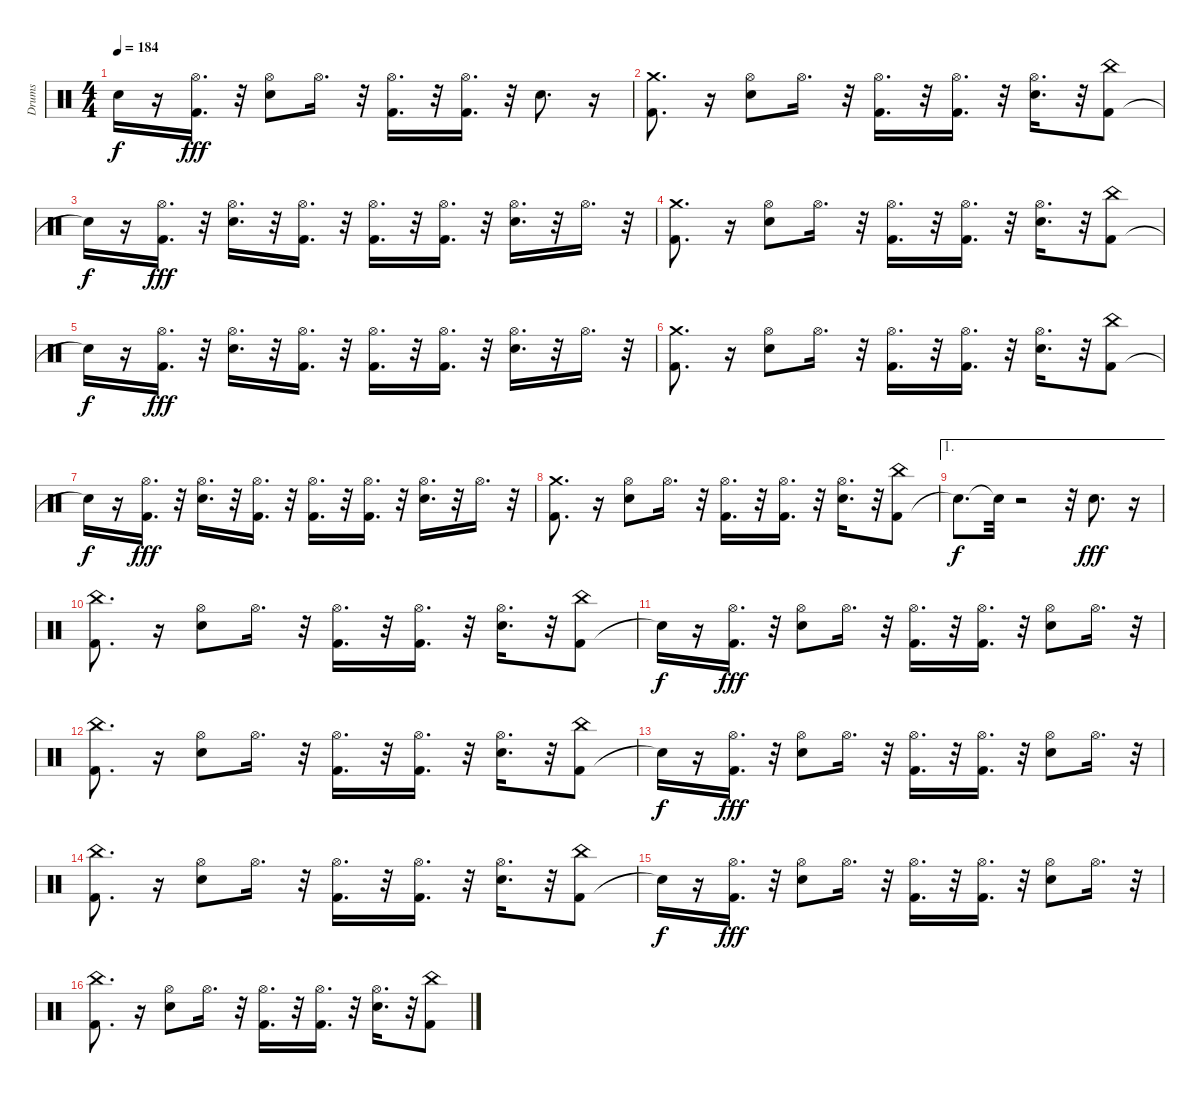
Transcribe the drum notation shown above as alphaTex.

\track ("Drums" "Drums") {instrument percussion}
\staff {score}
\articulation defaults
\ts (4 4)
\tempo 184
\clef neutral
\ks c "Snare (hit)"{t}.16{dy f}
r.16 ("Kick (hit) 2" "Hi-Hat (open)").16{d dy fff} r.32 ("Electric Snare (hit)" "Hi-Hat (open)").8 "Hi-Hat (open)".16{d} r.32 ("Kick (hit) 2" "Hi-Hat (open)").16{d} r.32 ("Kick (hit) 2" "Hi-Hat (open)").16{d} r.32 "Electric Snare (hit)".8{d} r.16 |
("Crash medium (hit)" "Kick (hit) 2").8{d} r.16 ("Electric Snare (hit)" "Hi-Hat (open)").8 "Hi-Hat (open)".16{d} r.32 ("Kick (hit) 2" "Hi-Hat (open)").16{d} r.32 ("Kick (hit) 2" "Hi-Hat (open)").16{d} r.32 ("Electric Snare (hit)" "Hi-Hat (open)").16{d} r.32 ("Kick (hit) 2" "China (hit)").8 |
"Snare (hit)"{t}.16{dy f} r.16 ("Kick (hit) 2" "Hi-Hat (open)").16{d dy fff} r.32 ("Electric Snare (hit)" "Hi-Hat (open)").16{d} r.32 ("Kick (hit) 2" "Hi-Hat (open)").16{d} r.32 ("Kick (hit) 2" "Hi-Hat (open)").16{d} r.32 ("Kick (hit) 2" "Hi-Hat (open)").16{d} r.32 ("Electric Snare (hit)" "Hi-Hat (open)").16{d} r.32 "Hi-Hat (open)".16{d} r.32 |
("Crash medium (hit)" "Kick (hit) 2").8{d} r.16 ("Electric Snare (hit)" "Hi-Hat (open)").8 "Hi-Hat (open)".16{d} r.32 ("Kick (hit) 2" "Hi-Hat (open)").16{d} r.32 ("Kick (hit) 2" "Hi-Hat (open)").16{d} r.32 ("Electric Snare (hit)" "Hi-Hat (open)").16{d} r.32 ("Kick (hit) 2" "China (hit)").8 |
"Snare (hit)"{t}.16{dy f} r.16 ("Kick (hit) 2" "Hi-Hat (open)").16{d dy fff} r.32 ("Electric Snare (hit)" "Hi-Hat (open)").16{d} r.32 ("Kick (hit) 2" "Hi-Hat (open)").16{d} r.32 ("Kick (hit) 2" "Hi-Hat (open)").16{d} r.32 ("Kick (hit) 2" "Hi-Hat (open)").16{d} r.32 ("Electric Snare (hit)" "Hi-Hat (open)").16{d} r.32 "Hi-Hat (open)".16{d} r.32 |
("Crash medium (hit)" "Kick (hit) 2").8{d} r.16 ("Electric Snare (hit)" "Hi-Hat (open)").8 "Hi-Hat (open)".16{d} r.32 ("Kick (hit) 2" "Hi-Hat (open)").16{d} r.32 ("Kick (hit) 2" "Hi-Hat (open)").16{d} r.32 ("Electric Snare (hit)" "Hi-Hat (open)").16{d} r.32 ("Kick (hit) 2" "China (hit)").8 |
"Snare (hit)"{t}.16{dy f} r.16 ("Kick (hit) 2" "Hi-Hat (open)").16{d dy fff} r.32 ("Electric Snare (hit)" "Hi-Hat (open)").16{d} r.32 ("Kick (hit) 2" "Hi-Hat (open)").16{d} r.32 ("Kick (hit) 2" "Hi-Hat (open)").16{d} r.32 ("Kick (hit) 2" "Hi-Hat (open)").16{d} r.32 ("Electric Snare (hit)" "Hi-Hat (open)").16{d} r.32 "Hi-Hat (open)".16{d} r.32 |
("Crash medium (hit)" "Kick (hit) 2").8{d} r.16 ("Electric Snare (hit)" "Hi-Hat (open)").8 "Hi-Hat (open)".16{d} r.32 ("Kick (hit) 2" "Hi-Hat (open)").16{d} r.32 ("Kick (hit) 2" "Hi-Hat (open)").16{d} r.32 ("Electric Snare (hit)" "Hi-Hat (open)").16{d} r.32 ("Kick (hit) 2" "China (hit)").8 |
\ae 1 "Snare (hit)"{t}.8{d dy f} "Snare (hit)"{t}.32
r.2 r.32 "Electric Snare (hit)".8{d dy fff} r.16 |
("Kick (hit) 2" "China (hit)").8{d} r.16 ("Electric Snare (hit)" "Hi-Hat (open)").8 "Hi-Hat (open)".16{d} r.32 ("Hi-Hat (open)" "Kick (hit) 2").16{d} r.32 ("Hi-Hat (open)" "Kick (hit) 2").16{d} r.32 ("Hi-Hat (open)" "Electric Snare (hit)").16{d} r.32 ("Kick (hit) 2" "China (hit)").8 |
"Snare (hit)"{t}.16{dy f} r.16 ("Kick (hit) 2" "Hi-Hat (open)").16{d dy fff} r.32 ("Electric Snare (hit)" "Hi-Hat (open)").8 "Hi-Hat (open)".16{d} r.32 ("Kick (hit) 2" "Hi-Hat (open)").16{d} r.32 ("Kick (hit) 2" "Hi-Hat (open)").16{d} r.32 ("Electric Snare (hit)" "Hi-Hat (open)").8 "Hi-Hat (open)".16{d} r.32 |
("Kick (hit) 2" "China (hit)").8{d} r.16 ("Electric Snare (hit)" "Hi-Hat (open)").8 "Hi-Hat (open)".16{d} r.32 ("Hi-Hat (open)" "Kick (hit) 2").16{d} r.32 ("Hi-Hat (open)" "Kick (hit) 2").16{d} r.32 ("Hi-Hat (open)" "Electric Snare (hit)").16{d} r.32 ("Kick (hit) 2" "China (hit)").8 |
"Snare (hit)"{t}.16{dy f} r.16 ("Kick (hit) 2" "Hi-Hat (open)").16{d dy fff} r.32 ("Electric Snare (hit)" "Hi-Hat (open)").8 "Hi-Hat (open)".16{d} r.32 ("Kick (hit) 2" "Hi-Hat (open)").16{d} r.32 ("Kick (hit) 2" "Hi-Hat (open)").16{d} r.32 ("Electric Snare (hit)" "Hi-Hat (open)").8 "Hi-Hat (open)".16{d} r.32 |
("Kick (hit) 2" "China (hit)").8{d} r.16 ("Electric Snare (hit)" "Hi-Hat (open)").8 "Hi-Hat (open)".16{d} r.32 ("Hi-Hat (open)" "Kick (hit) 2").16{d} r.32 ("Hi-Hat (open)" "Kick (hit) 2").16{d} r.32 ("Hi-Hat (open)" "Electric Snare (hit)").16{d} r.32 ("Kick (hit) 2" "China (hit)").8 |
"Snare (hit)"{t}.16{dy f} r.16 ("Kick (hit) 2" "Hi-Hat (open)").16{d dy fff} r.32 ("Electric Snare (hit)" "Hi-Hat (open)").8 "Hi-Hat (open)".16{d} r.32 ("Kick (hit) 2" "Hi-Hat (open)").16{d} r.32 ("Kick (hit) 2" "Hi-Hat (open)").16{d} r.32 ("Electric Snare (hit)" "Hi-Hat (open)").8 "Hi-Hat (open)".16{d} r.32 |
("Kick (hit) 2" "China (hit)").8{d} r.16 ("Electric Snare (hit)" "Hi-Hat (open)").8 "Hi-Hat (open)".16{d} r.32 ("Hi-Hat (open)" "Kick (hit) 2").16{d} r.32 ("Hi-Hat (open)" "Kick (hit) 2").16{d} r.32 ("Hi-Hat (open)" "Electric Snare (hit)").16{d} r.32 ("Kick (hit) 2" "China (hit)").8
